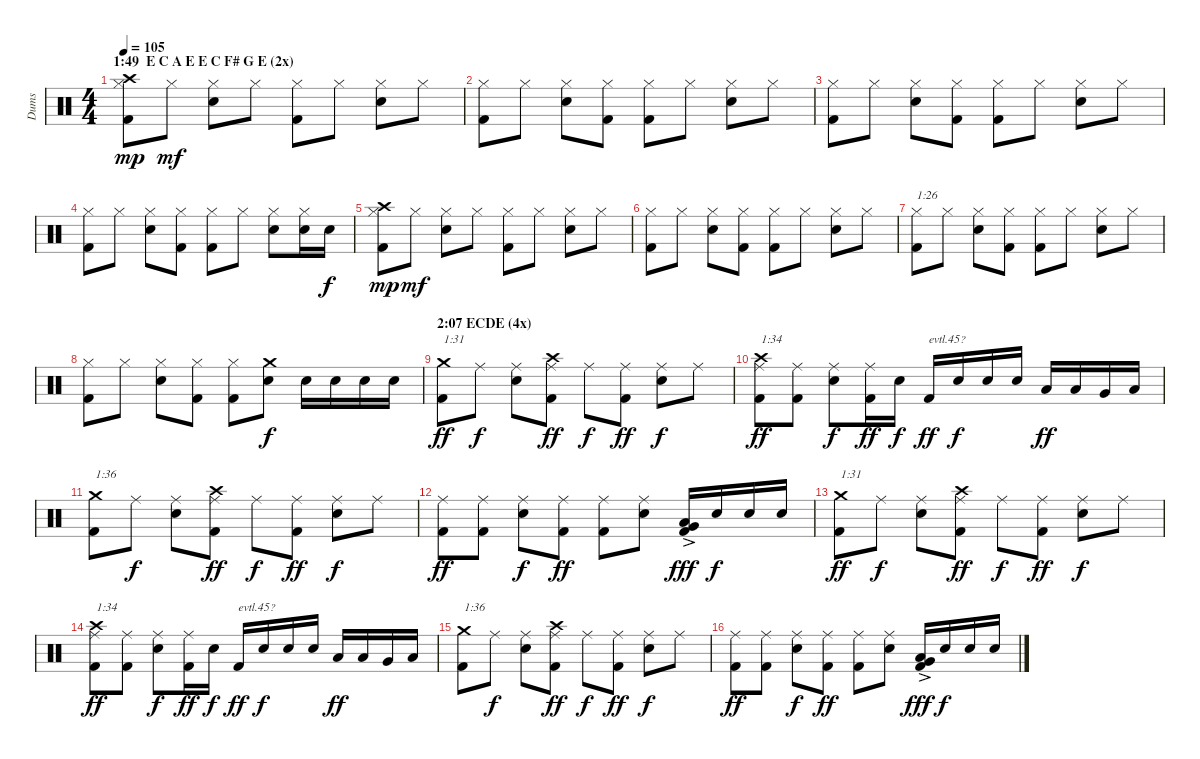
\track ("Dums" "Dums") {instrument percussion}
\staff {score}
\articulation defaults
\ts (4 4)
\section ("" "1:49  E C A E E C F# G E (2x)")
\tempo 105
\clef neutral
\ks c
("Kick (hit) 2" "Hi-Hat (closed)" "Crash high (hit)").8{dy mp} "Hi-Hat (closed)".8{dy mf} ("Electric Snare (hit)" "Hi-Hat (closed)").8 "Hi-Hat (closed)".8 ("Kick (hit) 2" "Hi-Hat (closed)").8 "Hi-Hat (closed)".8 ("Electric Snare (hit)" "Hi-Hat (closed)").8 "Hi-Hat (closed)".8 |
("Kick (hit) 2" "Hi-Hat (closed)").8 "Hi-Hat (closed)".8 ("Electric Snare (hit)" "Hi-Hat (closed)").8 ("Kick (hit) 2" "Hi-Hat (closed)").8 ("Kick (hit) 2" "Hi-Hat (closed)").8 "Hi-Hat (closed)".8 ("Electric Snare (hit)" "Hi-Hat (closed)").8 "Hi-Hat (closed)".8 |
("Kick (hit) 2" "Hi-Hat (closed)").8 "Hi-Hat (closed)".8 ("Electric Snare (hit)" "Hi-Hat (closed)").8 ("Kick (hit) 2" "Hi-Hat (closed)").8 ("Kick (hit) 2" "Hi-Hat (closed)").8 "Hi-Hat (closed)".8 ("Electric Snare (hit)" "Hi-Hat (closed)").8 "Hi-Hat (closed)".8 |
("Kick (hit) 2" "Hi-Hat (closed)").8 "Hi-Hat (closed)".8 ("Electric Snare (hit)" "Hi-Hat (closed)").8 ("Kick (hit) 2" "Hi-Hat (closed)").8 ("Kick (hit) 2" "Hi-Hat (closed)").8 "Hi-Hat (closed)".8 ("Electric Snare (hit)" "Hi-Hat (closed)").8 ("Electric Snare (hit)" "Hi-Hat (closed)").16 "Electric Snare (hit)".16{dy f} |
("Kick (hit) 2" "Hi-Hat (closed)" "Crash high (hit)").8{dy mp} "Hi-Hat (closed)".8{dy mf} ("Electric Snare (hit)" "Hi-Hat (closed)").8 "Hi-Hat (closed)".8 ("Kick (hit) 2" "Hi-Hat (closed)").8 "Hi-Hat (closed)".8 ("Electric Snare (hit)" "Hi-Hat (closed)").8 "Hi-Hat (closed)".8 |
("Kick (hit) 2" "Hi-Hat (closed)").8 "Hi-Hat (closed)".8 ("Electric Snare (hit)" "Hi-Hat (closed)").8 ("Kick (hit) 2" "Hi-Hat (closed)").8 ("Kick (hit) 2" "Hi-Hat (closed)").8 "Hi-Hat (closed)".8 ("Electric Snare (hit)" "Hi-Hat (closed)").8 "Hi-Hat (closed)".8 |
("Kick (hit) 2" "Hi-Hat (closed)").8{txt "1:26"} "Hi-Hat (closed)".8 ("Electric Snare (hit)" "Hi-Hat (closed)").8 ("Kick (hit) 2" "Hi-Hat (closed)").8 ("Kick (hit) 2" "Hi-Hat (closed)").8 "Hi-Hat (closed)".8 ("Electric Snare (hit)" "Hi-Hat (closed)").8 "Hi-Hat (closed)".8 |
("Kick (hit) 2" "Hi-Hat (closed)").8 "Hi-Hat (closed)".8 ("Electric Snare (hit)" "Hi-Hat (closed)").8 ("Kick (hit) 2" "Hi-Hat (closed)").8 ("Kick (hit) 2" "Hi-Hat (closed)").8 ("Electric Snare (hit)" "Crash medium (hit)").8{dy f} "Electric Snare (hit)".16 "Electric Snare (hit)".16 "Electric Snare (hit)".16 "Electric Snare (hit)".16 |
\section ("" "2:07 ECDE (4x)")
("Kick (hit) 2" "Crash medium (hit)").8{txt "1:31" dy ff} "Ride (middle)".8{dy f} ("Electric Snare (hit)" "Ride (middle)").8 ("Kick (hit) 2" "Ride (middle)" "Crash high (hit)").8{dy ff} "Ride (middle)".8{dy f} ("Kick (hit) 2" "Ride (middle)").8{dy ff} ("Electric Snare (hit)" "Ride (middle)").8{dy f} "Ride (middle)".8 |
("Kick (hit) 2" "Ride (middle)" "Crash high (hit)").8{txt "1:34" dy ff} ("Kick (hit) 2" "Ride (middle)").8 ("Electric Snare (hit)" "Ride (middle)").8{dy f} ("Kick (hit) 2" "Ride (middle)").16{dy ff} "Electric Snare (hit)".16{dy f} "Kick (hit) 2".16{txt "evtl.45?" dy ff} "Electric Snare (hit)".16{dy f} "Electric Snare (hit)".16 "Electric Snare (hit)".16 "Low Tom (hit)".16{dy ff} "Low Tom (hit)".16 "Very Low Tom (hit)".16 "Low Floor Tom (hit)".16 |
("Kick (hit) 2" "Crash medium (hit)").8{txt "1:36"} "Ride (middle)".8{dy f} ("Electric Snare (hit)" "Ride (middle)").8 ("Kick (hit) 2" "Ride (middle)" "Crash high (hit)").8{dy ff} "Ride (middle)".8{dy f} ("Kick (hit) 2" "Ride (middle)").8{dy ff} ("Electric Snare (hit)" "Ride (middle)").8{dy f} "Ride (middle)".8 |
("Kick (hit) 2" "Ride (middle)").8{dy ff} ("Kick (hit) 2" "Ride (middle)").8 ("Electric Snare (hit)" "Ride (middle)").8{dy f} ("Kick (hit) 2" "Ride (middle)").8{dy ff} ("Kick (hit) 2" "Ride (middle)").8 ("Electric Snare (hit)" "Ride (middle)").8 ("Kick (hit) 2" "Low Floor Tom (hit)"{ac} "Very Low Tom (hit)"{ac}).16{dy fff} "Electric Snare (hit)".16{dy f} "Electric Snare (hit)".16 "Electric Snare (hit)".16 |
("Kick (hit) 2" "Crash medium (hit)").8{txt "1:31" dy ff} "Ride (middle)".8{dy f} ("Electric Snare (hit)" "Ride (middle)").8 ("Kick (hit) 2" "Ride (middle)" "Crash high (hit)").8{dy ff} "Ride (middle)".8{dy f} ("Kick (hit) 2" "Ride (middle)").8{dy ff} ("Electric Snare (hit)" "Ride (middle)").8{dy f} "Ride (middle)".8 |
("Kick (hit) 2" "Ride (middle)" "Crash high (hit)").8{txt "1:34" dy ff} ("Kick (hit) 2" "Ride (middle)").8 ("Electric Snare (hit)" "Ride (middle)").8{dy f} ("Kick (hit) 2" "Ride (middle)").16{dy ff} "Electric Snare (hit)".16{dy f} "Kick (hit) 2".16{txt "evtl.45?" dy ff} "Electric Snare (hit)".16{dy f} "Electric Snare (hit)".16 "Electric Snare (hit)".16 "Low Tom (hit)".16{dy ff} "Low Tom (hit)".16 "Very Low Tom (hit)".16 "Low Floor Tom (hit)".16 |
("Kick (hit) 2" "Crash medium (hit)").8{txt "1:36"} "Ride (middle)".8{dy f} ("Electric Snare (hit)" "Ride (middle)").8 ("Kick (hit) 2" "Ride (middle)" "Crash high (hit)").8{dy ff} "Ride (middle)".8{dy f} ("Kick (hit) 2" "Ride (middle)").8{dy ff} ("Electric Snare (hit)" "Ride (middle)").8{dy f} "Ride (middle)".8 |
("Kick (hit) 2" "Ride (middle)").8{dy ff} ("Kick (hit) 2" "Ride (middle)").8 ("Electric Snare (hit)" "Ride (middle)").8{dy f} ("Kick (hit) 2" "Ride (middle)").8{dy ff} ("Kick (hit) 2" "Ride (middle)").8 ("Electric Snare (hit)" "Ride (middle)").8 ("Kick (hit) 2" "Low Floor Tom (hit)"{ac} "Very Low Tom (hit)"{ac}).16{dy fff} "Electric Snare (hit)".16{dy f} "Electric Snare (hit)".16 "Electric Snare (hit)".16
